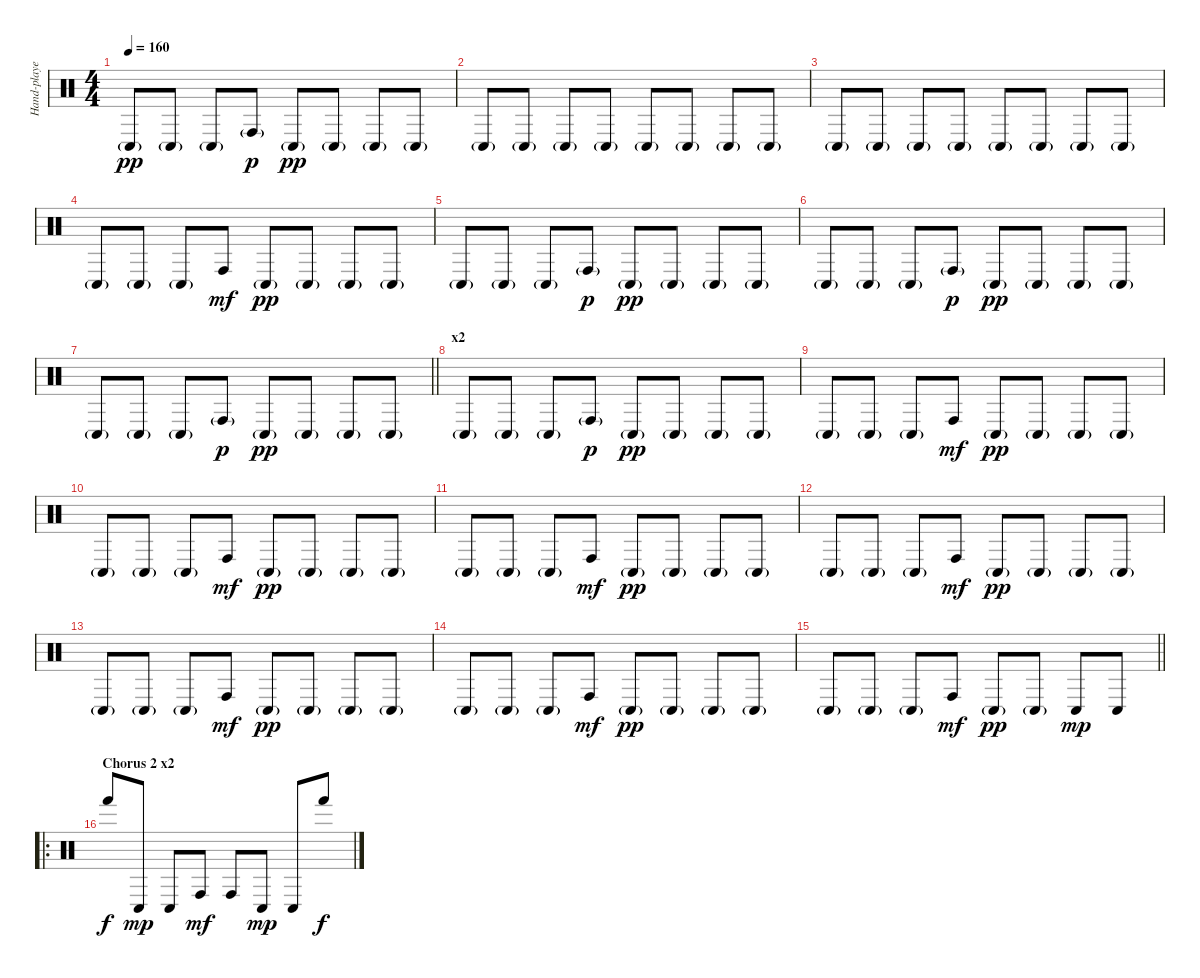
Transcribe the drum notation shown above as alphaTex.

\track ("Hand-played drums" "Hand-playe") {instrument percussion}
\staff {score}
\articulation defaults
\ts (4 4)
\tempo 160
\clef neutral
\ks c "Conga low (hit)"{g}.8{dy pp} "Conga low (hit)"{g}.8 "Conga low (hit)"{g}.8 "Conga high (hit)"{g}.8{dy p} "Conga low (hit)"{g}.8{dy pp} "Conga low (hit)"{g}.8 "Conga low (hit)"{g}.8 "Conga low (hit)"{g}.8
|
"Conga low (hit)"{g}.8 "Conga low (hit)"{g}.8 "Conga low (hit)"{g}.8 "Conga low (hit)"{g}.8 "Conga low (hit)"{g}.8 "Conga low (hit)"{g}.8 "Conga low (hit)"{g}.8 "Conga low (hit)"{g}.8 |
"Conga low (hit)"{g}.8 "Conga low (hit)"{g}.8 "Conga low (hit)"{g}.8 "Conga low (hit)"{g}.8 "Conga low (hit)"{g}.8 "Conga low (hit)"{g}.8 "Conga low (hit)"{g}.8 "Conga low (hit)"{g}.8 |
"Conga low (hit)"{g}.8 "Conga low (hit)"{g}.8 "Conga low (hit)"{g}.8 "Conga high (hit)".8{dy mf} "Conga low (hit)"{g}.8{dy pp} "Conga low (hit)"{g}.8 "Conga low (hit)"{g}.8 "Conga low (hit)"{g}.8 |
"Conga low (hit)"{g}.8 "Conga low (hit)"{g}.8 "Conga low (hit)"{g}.8 "Conga high (hit)"{g}.8{dy p} "Conga low (hit)"{g}.8{dy pp} "Conga low (hit)"{g}.8 "Conga low (hit)"{g}.8 "Conga low (hit)"{g}.8 |
"Conga low (hit)"{g}.8 "Conga low (hit)"{g}.8 "Conga low (hit)"{g}.8 "Conga high (hit)"{g}.8{dy p} "Conga low (hit)"{g}.8{dy pp} "Conga low (hit)"{g}.8 "Conga low (hit)"{g}.8 "Conga low (hit)"{g}.8 |
\barLineRight lightlight "Conga low (hit)"{g}.8 "Conga low (hit)"{g}.8 "Conga low (hit)"{g}.8 "Conga high (hit)"{g}.8{dy p} "Conga low (hit)"{g}.8{dy pp} "Conga low (hit)"{g}.8 "Conga low (hit)"{g}.8 "Conga low (hit)"{g}.8
|
\section ("" "x2")
"Conga low (hit)"{g}.8 "Conga low (hit)"{g}.8 "Conga low (hit)"{g}.8 "Conga high (hit)"{g}.8{dy p} "Conga low (hit)"{g}.8{dy pp} "Conga low (hit)"{g}.8 "Conga low (hit)"{g}.8 "Conga low (hit)"{g}.8 |
"Conga low (hit)"{g}.8 "Conga low (hit)"{g}.8 "Conga low (hit)"{g}.8 "Conga high (hit)".8{dy mf} "Conga low (hit)"{g}.8{dy pp} "Conga low (hit)"{g}.8 "Conga low (hit)"{g}.8 "Conga low (hit)"{g}.8 |
"Conga low (hit)"{g}.8 "Conga low (hit)"{g}.8 "Conga low (hit)"{g}.8 "Conga high (hit)".8{dy mf} "Conga low (hit)"{g}.8{dy pp} "Conga low (hit)"{g}.8 "Conga low (hit)"{g}.8 "Conga low (hit)"{g}.8 |
"Conga low (hit)"{g}.8 "Conga low (hit)"{g}.8 "Conga low (hit)"{g}.8 "Conga high (hit)".8{dy mf} "Conga low (hit)"{g}.8{dy pp} "Conga low (hit)"{g}.8 "Conga low (hit)"{g}.8 "Conga low (hit)"{g}.8 |
"Conga low (hit)"{g}.8 "Conga low (hit)"{g}.8 "Conga low (hit)"{g}.8 "Conga high (hit)".8{dy mf} "Conga low (hit)"{g}.8{dy pp} "Conga low (hit)"{g}.8 "Conga low (hit)"{g}.8 "Conga low (hit)"{g}.8 |
"Conga low (hit)"{g}.8 "Conga low (hit)"{g}.8 "Conga low (hit)"{g}.8 "Conga high (hit)".8{dy mf} "Conga low (hit)"{g}.8{dy pp} "Conga low (hit)"{g}.8 "Conga low (hit)"{g}.8 "Conga low (hit)"{g}.8 |
"Conga low (hit)"{g}.8 "Conga low (hit)"{g}.8 "Conga low (hit)"{g}.8 "Conga high (hit)".8{dy mf} "Conga low (hit)"{g}.8{dy pp} "Conga low (hit)"{g}.8 "Conga low (hit)"{g}.8 "Conga low (hit)"{g}.8 |
\barLineRight lightlight "Conga low (hit)"{g}.8 "Conga low (hit)"{g}.8 "Conga low (hit)"{g}.8 "Conga high (hit)".8{dy mf} "Conga low (hit)"{g}.8{dy pp} "Conga low (hit)"{g}.8 "Conga low (hit)".8{dy mp} "Conga low (hit)".8
|
\ro
\section ("" "Chorus 2 x2")
"Hand (hit)".8{dy f} "Conga low (hit)".8{dy mp} "Conga low (hit)".8 "Conga high (hit)".8{dy mf} "Conga high (hit)".8 "Conga low (hit)".8{dy mp} "Conga low (hit)".8 "Hand (hit)".8{dy f}
